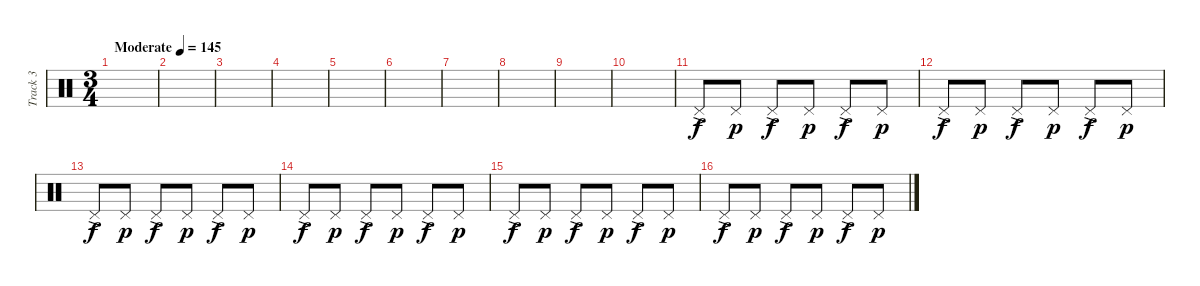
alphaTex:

\track ("Track 3" "Track 3") {instrument percussion}
\staff {score}
\articulation defaults
\ts (3 4)
\tempo (145 "Moderate")
\clef neutral
\ks c
|
|
|
|
|
|
|
|
|
|
"Pedal Hi-Hat (hit)"{ac}.8 "Pedal Hi-Hat (hit)".8{dy p} "Pedal Hi-Hat (hit)"{ac}.8{dy f} "Pedal Hi-Hat (hit)".8{dy p} "Pedal Hi-Hat (hit)"{ac}.8{dy f} "Pedal Hi-Hat (hit)".8{dy p} |
"Pedal Hi-Hat (hit)"{ac}.8{dy f} "Pedal Hi-Hat (hit)".8{dy p} "Pedal Hi-Hat (hit)"{ac}.8{dy f} "Pedal Hi-Hat (hit)".8{dy p} "Pedal Hi-Hat (hit)"{ac}.8{dy f} "Pedal Hi-Hat (hit)".8{dy p} |
"Pedal Hi-Hat (hit)"{ac}.8{dy f} "Pedal Hi-Hat (hit)".8{dy p} "Pedal Hi-Hat (hit)"{ac}.8{dy f} "Pedal Hi-Hat (hit)".8{dy p} "Pedal Hi-Hat (hit)"{ac}.8{dy f} "Pedal Hi-Hat (hit)".8{dy p} |
"Pedal Hi-Hat (hit)"{ac}.8{dy f} "Pedal Hi-Hat (hit)".8{dy p} "Pedal Hi-Hat (hit)"{ac}.8{dy f} "Pedal Hi-Hat (hit)".8{dy p} "Pedal Hi-Hat (hit)"{ac}.8{dy f} "Pedal Hi-Hat (hit)".8{dy p} |
"Pedal Hi-Hat (hit)"{ac}.8{dy f} "Pedal Hi-Hat (hit)".8{dy p} "Pedal Hi-Hat (hit)"{ac}.8{dy f} "Pedal Hi-Hat (hit)".8{dy p} "Pedal Hi-Hat (hit)"{ac}.8{dy f} "Pedal Hi-Hat (hit)".8{dy p} |
"Pedal Hi-Hat (hit)"{ac}.8{dy f} "Pedal Hi-Hat (hit)".8{dy p} "Pedal Hi-Hat (hit)"{ac}.8{dy f} "Pedal Hi-Hat (hit)".8{dy p} "Pedal Hi-Hat (hit)"{ac}.8{dy f} "Pedal Hi-Hat (hit)".8{dy p}
